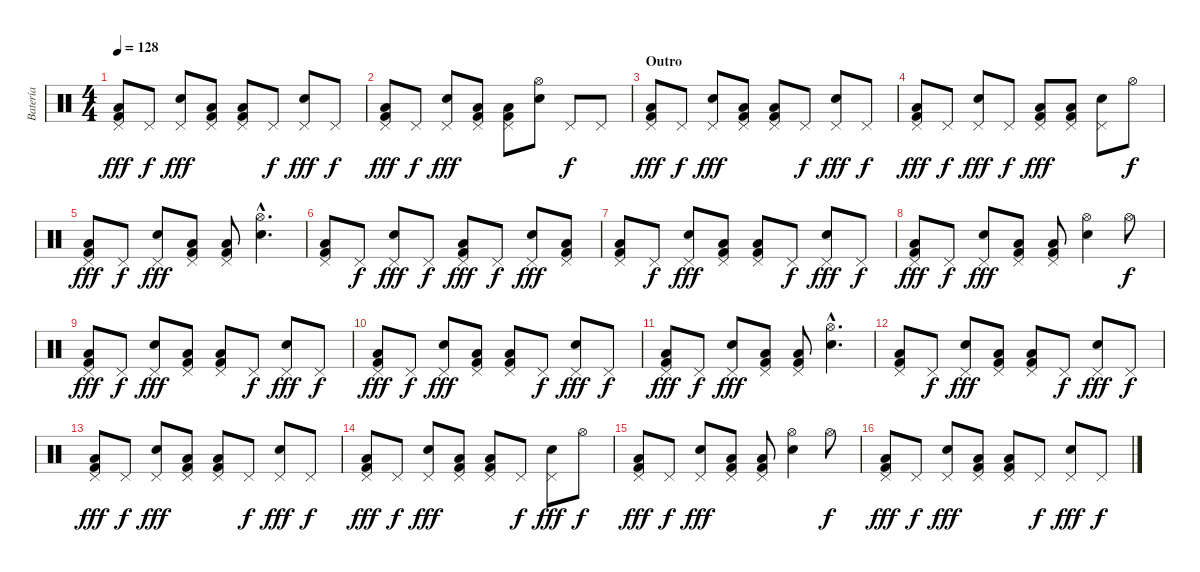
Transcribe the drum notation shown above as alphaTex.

\track ("Batería" "Batería") {instrument percussion}
\staff {score}
\articulation defaults
\ts (4 4)
\tempo 128
\clef neutral
\ks c
("Low Floor Tom (hit)" "Kick (hit) 2" "Pedal Hi-Hat (hit)").8{dy fff} "Pedal Hi-Hat (hit)".8{dy f} ("Electric Snare (hit)" "Pedal Hi-Hat (hit)").8{dy fff} ("Low Floor Tom (hit)" "Kick (hit) 2" "Pedal Hi-Hat (hit)").8 ("Low Floor Tom (hit)" "Kick (hit) 2" "Pedal Hi-Hat (hit)").8 "Pedal Hi-Hat (hit)".8{dy f} ("Electric Snare (hit)" "Pedal Hi-Hat (hit)").8{dy fff} "Pedal Hi-Hat (hit)".8{dy f} |
("Low Floor Tom (hit)" "Kick (hit) 2" "Pedal Hi-Hat (hit)").8{dy fff} "Pedal Hi-Hat (hit)".8{dy f} ("Electric Snare (hit)" "Pedal Hi-Hat (hit)").8{dy fff} ("Low Floor Tom (hit)" "Kick (hit) 2" "Pedal Hi-Hat (hit)").8 ("Low Floor Tom (hit)" "Kick (hit) 2" "Pedal Hi-Hat (hit)").8 ("Electric Snare (hit)" "Hi-Hat (open)").8 "Pedal Hi-Hat (hit)".8{dy f} "Pedal Hi-Hat (hit)".8 |
\section ("" "Outro")
("Low Floor Tom (hit)" "Kick (hit) 2" "Pedal Hi-Hat (hit)").8{dy fff} "Pedal Hi-Hat (hit)".8{dy f} ("Electric Snare (hit)" "Pedal Hi-Hat (hit)").8{dy fff} ("Low Floor Tom (hit)" "Kick (hit) 2" "Pedal Hi-Hat (hit)").8 ("Low Floor Tom (hit)" "Kick (hit) 2" "Pedal Hi-Hat (hit)").8 "Pedal Hi-Hat (hit)".8{dy f} ("Electric Snare (hit)" "Pedal Hi-Hat (hit)").8{dy fff} "Pedal Hi-Hat (hit)".8{dy f} |
("Low Floor Tom (hit)" "Kick (hit) 2" "Pedal Hi-Hat (hit)").8{dy fff} "Pedal Hi-Hat (hit)".8{dy f} ("Electric Snare (hit)" "Pedal Hi-Hat (hit)").8{dy fff} "Pedal Hi-Hat (hit)".8{dy f} ("Low Floor Tom (hit)" "Kick (hit) 2" "Pedal Hi-Hat (hit)").8{dy fff} ("Low Floor Tom (hit)" "Kick (hit) 2" "Pedal Hi-Hat (hit)").8 ("Electric Snare (hit)" "Pedal Hi-Hat (hit)").8 "Hi-Hat (open)".8{dy f} |
("Low Floor Tom (hit)" "Kick (hit) 2" "Pedal Hi-Hat (hit)").8{dy fff} "Pedal Hi-Hat (hit)".8{dy f} ("Electric Snare (hit)" "Pedal Hi-Hat (hit)").8{dy fff} ("Low Floor Tom (hit)" "Kick (hit) 2" "Pedal Hi-Hat (hit)").8 ("Low Floor Tom (hit)" "Kick (hit) 2" "Pedal Hi-Hat (hit)").8 ("Electric Snare (hit)"{hac} "Hi-Hat (open)"{hac}).4{d} |
("Low Floor Tom (hit)" "Kick (hit) 2" "Pedal Hi-Hat (hit)").8 "Pedal Hi-Hat (hit)".8{dy f} ("Electric Snare (hit)" "Pedal Hi-Hat (hit)").8{dy fff} "Pedal Hi-Hat (hit)".8{dy f} ("Low Floor Tom (hit)" "Kick (hit) 2" "Pedal Hi-Hat (hit)").8{dy fff} "Pedal Hi-Hat (hit)".8{dy f} ("Electric Snare (hit)" "Pedal Hi-Hat (hit)").8{dy fff} ("Low Floor Tom (hit)" "Kick (hit) 2" "Pedal Hi-Hat (hit)").8 |
("Low Floor Tom (hit)" "Kick (hit) 2" "Pedal Hi-Hat (hit)").8 "Pedal Hi-Hat (hit)".8{dy f} ("Electric Snare (hit)" "Pedal Hi-Hat (hit)").8{dy fff} ("Low Floor Tom (hit)" "Kick (hit) 2" "Pedal Hi-Hat (hit)").8 ("Low Floor Tom (hit)" "Kick (hit) 2" "Pedal Hi-Hat (hit)").8 "Pedal Hi-Hat (hit)".8{dy f} ("Electric Snare (hit)" "Pedal Hi-Hat (hit)").8{dy fff} "Pedal Hi-Hat (hit)".8{dy f} |
("Low Floor Tom (hit)" "Kick (hit) 2" "Pedal Hi-Hat (hit)").8{dy fff} "Pedal Hi-Hat (hit)".8{dy f} ("Electric Snare (hit)" "Pedal Hi-Hat (hit)").8{dy fff} ("Low Floor Tom (hit)" "Kick (hit) 2" "Pedal Hi-Hat (hit)").8 ("Low Floor Tom (hit)" "Kick (hit) 2" "Pedal Hi-Hat (hit)").8 ("Electric Snare (hit)" "Hi-Hat (open)").4 "Hi-Hat (open)".8{dy f} |
("Low Floor Tom (hit)" "Kick (hit) 2" "Pedal Hi-Hat (hit)").8{dy fff} "Pedal Hi-Hat (hit)".8{dy f} ("Electric Snare (hit)" "Pedal Hi-Hat (hit)").8{dy fff} ("Low Floor Tom (hit)" "Kick (hit) 2" "Pedal Hi-Hat (hit)").8 ("Low Floor Tom (hit)" "Kick (hit) 2" "Pedal Hi-Hat (hit)").8 "Pedal Hi-Hat (hit)".8{dy f} ("Electric Snare (hit)" "Pedal Hi-Hat (hit)").8{dy fff} "Pedal Hi-Hat (hit)".8{dy f} |
("Low Floor Tom (hit)" "Kick (hit) 2" "Pedal Hi-Hat (hit)").8{dy fff} "Pedal Hi-Hat (hit)".8{dy f} ("Electric Snare (hit)" "Pedal Hi-Hat (hit)").8{dy fff} ("Low Floor Tom (hit)" "Kick (hit) 2" "Pedal Hi-Hat (hit)").8 ("Low Floor Tom (hit)" "Kick (hit) 2" "Pedal Hi-Hat (hit)").8 "Pedal Hi-Hat (hit)".8{dy f} ("Electric Snare (hit)" "Pedal Hi-Hat (hit)").8{dy fff} "Pedal Hi-Hat (hit)".8{dy f} |
("Low Floor Tom (hit)" "Kick (hit) 2" "Pedal Hi-Hat (hit)").8{dy fff} "Pedal Hi-Hat (hit)".8{dy f} ("Electric Snare (hit)" "Pedal Hi-Hat (hit)").8{dy fff} ("Low Floor Tom (hit)" "Kick (hit) 2" "Pedal Hi-Hat (hit)").8 ("Low Floor Tom (hit)" "Kick (hit) 2" "Pedal Hi-Hat (hit)").8 ("Electric Snare (hit)"{hac} "Hi-Hat (open)"{hac}).4{d} |
("Low Floor Tom (hit)" "Kick (hit) 2" "Pedal Hi-Hat (hit)").8 "Pedal Hi-Hat (hit)".8{dy f} ("Electric Snare (hit)" "Pedal Hi-Hat (hit)").8{dy fff} ("Low Floor Tom (hit)" "Kick (hit) 2" "Pedal Hi-Hat (hit)").8 ("Low Floor Tom (hit)" "Kick (hit) 2" "Pedal Hi-Hat (hit)").8 "Pedal Hi-Hat (hit)".8{dy f} ("Electric Snare (hit)" "Pedal Hi-Hat (hit)").8{dy fff} "Pedal Hi-Hat (hit)".8{dy f} |
("Low Floor Tom (hit)" "Kick (hit) 2" "Pedal Hi-Hat (hit)").8{dy fff} "Pedal Hi-Hat (hit)".8{dy f} ("Electric Snare (hit)" "Pedal Hi-Hat (hit)").8{dy fff} ("Low Floor Tom (hit)" "Kick (hit) 2" "Pedal Hi-Hat (hit)").8 ("Low Floor Tom (hit)" "Kick (hit) 2" "Pedal Hi-Hat (hit)").8 "Pedal Hi-Hat (hit)".8{dy f} ("Electric Snare (hit)" "Pedal Hi-Hat (hit)").8{dy fff} "Pedal Hi-Hat (hit)".8{dy f} |
("Low Floor Tom (hit)" "Kick (hit) 2" "Pedal Hi-Hat (hit)").8{dy fff} "Pedal Hi-Hat (hit)".8{dy f} ("Electric Snare (hit)" "Pedal Hi-Hat (hit)").8{dy fff} ("Low Floor Tom (hit)" "Kick (hit) 2" "Pedal Hi-Hat (hit)").8 ("Low Floor Tom (hit)" "Kick (hit) 2" "Pedal Hi-Hat (hit)").8 "Pedal Hi-Hat (hit)".8{dy f} ("Electric Snare (hit)" "Pedal Hi-Hat (hit)").8{dy fff} "Hi-Hat (open)".8{dy f} |
("Low Floor Tom (hit)" "Kick (hit) 2" "Pedal Hi-Hat (hit)").8{dy fff} "Pedal Hi-Hat (hit)".8{dy f} ("Electric Snare (hit)" "Pedal Hi-Hat (hit)").8{dy fff} ("Low Floor Tom (hit)" "Kick (hit) 2" "Pedal Hi-Hat (hit)").8 ("Low Floor Tom (hit)" "Kick (hit) 2" "Pedal Hi-Hat (hit)").8 ("Electric Snare (hit)" "Hi-Hat (open)").4 "Hi-Hat (open)".8{dy f} |
("Low Floor Tom (hit)" "Kick (hit) 2" "Pedal Hi-Hat (hit)").8{dy fff} "Pedal Hi-Hat (hit)".8{dy f} ("Electric Snare (hit)" "Pedal Hi-Hat (hit)").8{dy fff} ("Low Floor Tom (hit)" "Kick (hit) 2" "Pedal Hi-Hat (hit)").8 ("Low Floor Tom (hit)" "Kick (hit) 2" "Pedal Hi-Hat (hit)").8 "Pedal Hi-Hat (hit)".8{dy f} ("Electric Snare (hit)" "Pedal Hi-Hat (hit)").8{dy fff} "Pedal Hi-Hat (hit)".8{dy f}
